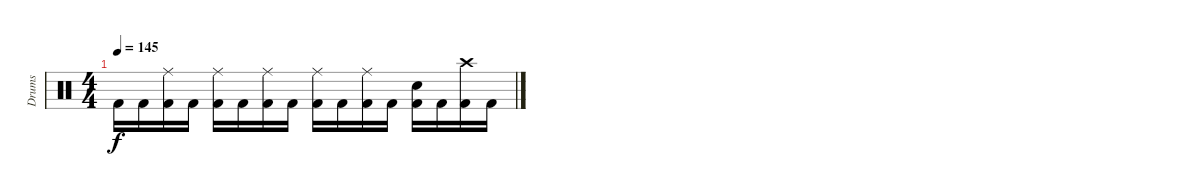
\track ("Drums" "Drums") {instrument percussion}
\staff {score}
\articulation defaults
\ts (4 4)
\tempo 145
\clef neutral
\ks c "Kick (hit) 2".16{dy f volume 0} "Kick (hit) 2".16
("Ride (middle)" "Kick (hit) 2").16 "Kick (hit) 2".16 ("Ride (middle)" "Kick (hit) 2").16 "Kick (hit) 2".16 ("Ride (middle)" "Kick (hit) 2").16 "Kick (hit) 2".16 ("Ride (middle)" "Kick (hit) 2").16 "Kick (hit) 2".16 ("Ride (middle)" "Kick (hit) 2").16 "Kick (hit) 2".16 ("Snare (hit) 2" "Kick (hit) 2").16 "Kick (hit) 2".16 ("Crash high (hit)" "Kick (hit) 2").16 "Kick (hit) 2".16
